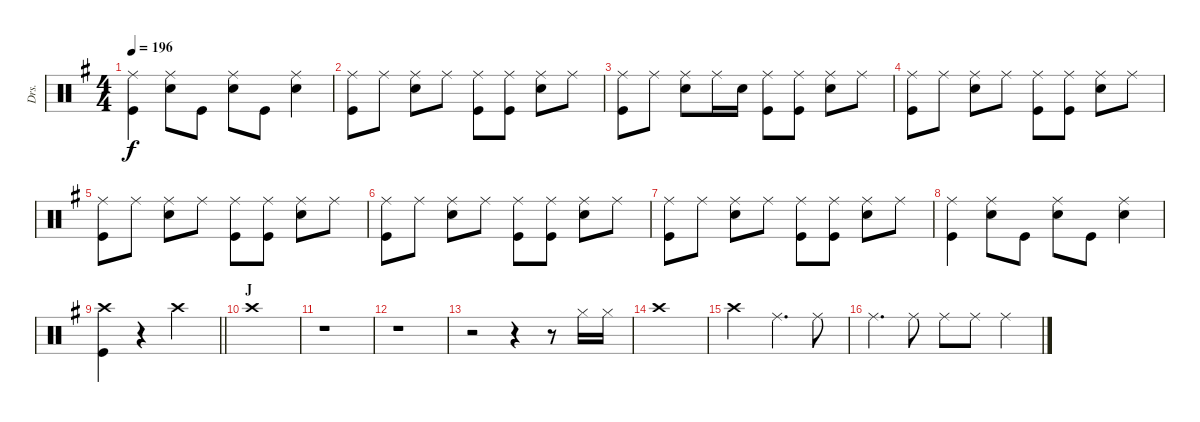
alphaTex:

\track ("Drs." "Drs.") {instrument percussion}
\staff {score}
\articulation defaults
\ts (4 4)
\tempo 196
\clef neutral
\ks g
("Ride (middle)" "Kick (hit)").4{dy f} ("Ride (middle)" "Snare (hit) 2").8 "Kick (hit)".8 ("Ride (middle)" "Snare (hit) 2").8 "Kick (hit)".8 ("Ride (middle)" "Snare (hit) 2").4 |
("Ride (middle)" "Kick (hit)").8 "Ride (middle)".8 ("Ride (middle)" "Snare (hit) 2").8 "Ride (middle)".8 ("Ride (middle)" "Kick (hit)").8 ("Ride (middle)" "Kick (hit)").8 ("Ride (middle)" "Snare (hit) 2").8 "Ride (middle)".8 |
("Ride (middle)" "Kick (hit)").8 "Ride (middle)".8 ("Ride (middle)" "Snare (hit) 2").8 "Ride (middle)".16 "Snare (hit) 2".16 ("Ride (middle)" "Kick (hit)").8 ("Ride (middle)" "Kick (hit)").8 ("Ride (middle)" "Snare (hit) 2").8 "Ride (middle)".8 |
("Ride (middle)" "Kick (hit)").8 "Ride (middle)".8 ("Ride (middle)" "Snare (hit) 2").8 "Ride (middle)".8 ("Ride (middle)" "Kick (hit)").8 ("Ride (middle)" "Kick (hit)").8 ("Ride (middle)" "Snare (hit) 2").8 "Ride (middle)".8 |
("Ride (middle)" "Kick (hit)").8 "Ride (middle)".8 ("Ride (middle)" "Snare (hit) 2").8 "Ride (middle)".8 ("Ride (middle)" "Kick (hit)").8 ("Ride (middle)" "Kick (hit)").8 ("Ride (middle)" "Snare (hit) 2").8 "Ride (middle)".8 |
("Ride (middle)" "Kick (hit)").8 "Ride (middle)".8 ("Ride (middle)" "Snare (hit) 2").8 "Ride (middle)".8 ("Ride (middle)" "Kick (hit)").8 ("Ride (middle)" "Kick (hit)").8 ("Ride (middle)" "Snare (hit) 2").8 "Ride (middle)".8 |
("Ride (middle)" "Kick (hit)").8 "Ride (middle)".8 ("Ride (middle)" "Snare (hit) 2").8 "Ride (middle)".8 ("Ride (middle)" "Kick (hit)").8 ("Ride (middle)" "Kick (hit)").8 ("Ride (middle)" "Snare (hit) 2").8 "Ride (middle)".8 |
("Ride (middle)" "Kick (hit)").4 ("Ride (middle)" "Snare (hit) 2").8 "Kick (hit)".8 ("Ride (middle)" "Snare (hit) 2").8 "Kick (hit)".8 ("Ride (middle)" "Snare (hit) 2").4 |
\barLineRight lightlight
("Crash high (hit)" "Kick (hit)").4 r.4 "Crash high (hit)".2 |
\section ("" "J")
"Crash high (hit)".1 |
r.1 |
r.1 |
r.2 r.4 r.8 "Hi-Hat (closed)".16 "Hi-Hat (closed)".16 |
"Crash high (hit)".1 |
"Crash high (hit)".2 "Ride (middle)".4{d} "Ride (middle)".8 |
"Ride (middle)".4{d} "Ride (middle)".8 "Ride (middle)".8 "Ride (middle)".8 "Ride (middle)".4
